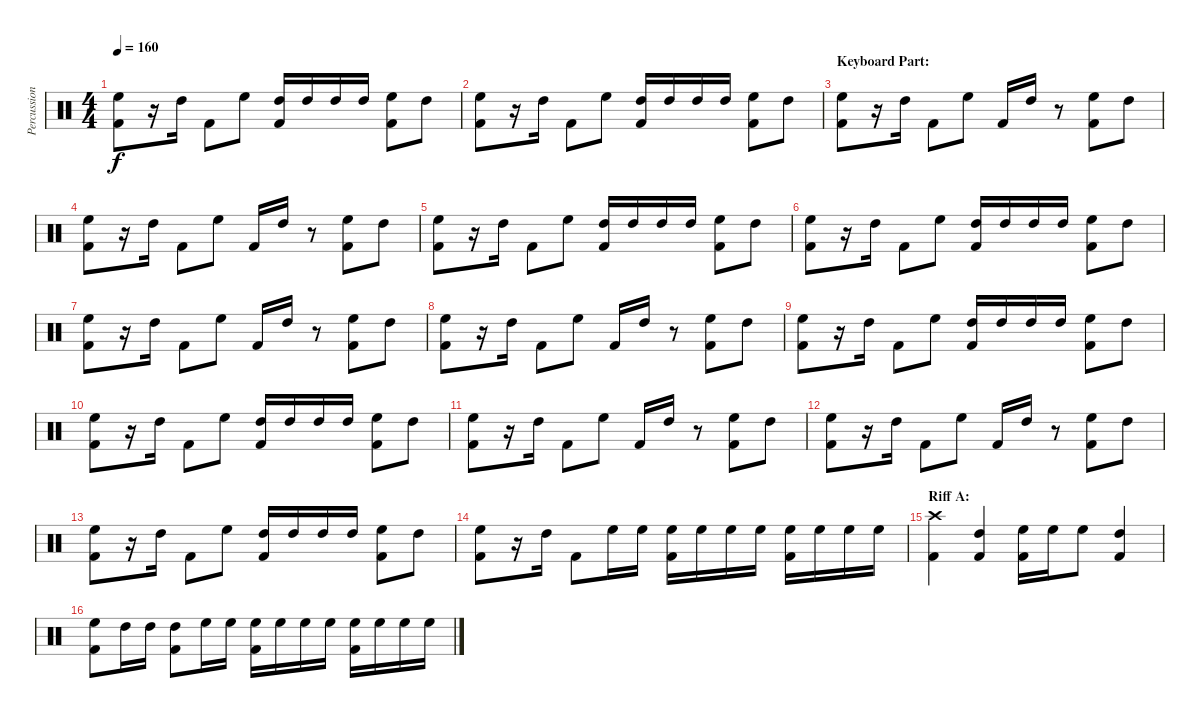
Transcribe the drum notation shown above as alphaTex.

\track ("Percussion" "Percussion") {instrument percussion}
\staff {score}
\articulation defaults
\ts (4 4)
\tempo 160
\clef neutral
\ks c
("High Floor Tom (hit)" "Kick (hit) 2").8{dy f} r.16 "High Tom (hit)".16 "Kick (hit) 2".8 "High Floor Tom (hit)".8 ("High Tom (hit)" "Kick (hit) 2").16 "High Tom (hit)".16 "High Tom (hit)".16 "High Tom (hit)".16 ("High Floor Tom (hit)" "Kick (hit) 2").8 "High Tom (hit)".8 |
("High Floor Tom (hit)" "Kick (hit) 2").8 r.16 "High Tom (hit)".16 "Kick (hit) 2".8 "High Floor Tom (hit)".8 ("High Tom (hit)" "Kick (hit) 2").16 "High Tom (hit)".16 "High Tom (hit)".16 "High Tom (hit)".16 ("High Floor Tom (hit)" "Kick (hit) 2").8 "High Tom (hit)".8 |
\section ("" "Keyboard Part:")
("High Floor Tom (hit)" "Kick (hit) 2").8 r.16 "High Tom (hit)".16 "Kick (hit) 2".8 "High Floor Tom (hit)".8 "Kick (hit) 2".16 "High Tom (hit)".16 r.8 ("High Floor Tom (hit)" "Kick (hit) 2").8 "High Tom (hit)".8 |
("High Floor Tom (hit)" "Kick (hit) 2").8 r.16 "High Tom (hit)".16 "Kick (hit) 2".8 "High Floor Tom (hit)".8 "Kick (hit) 2".16 "High Tom (hit)".16 r.8 ("High Floor Tom (hit)" "Kick (hit) 2").8 "High Tom (hit)".8 |
("High Floor Tom (hit)" "Kick (hit) 2").8 r.16 "High Tom (hit)".16 "Kick (hit) 2".8 "High Floor Tom (hit)".8 ("High Tom (hit)" "Kick (hit) 2").16 "High Tom (hit)".16 "High Tom (hit)".16 "High Tom (hit)".16 ("High Floor Tom (hit)" "Kick (hit) 2").8 "High Tom (hit)".8 |
("High Floor Tom (hit)" "Kick (hit) 2").8 r.16 "High Tom (hit)".16 "Kick (hit) 2".8 "High Floor Tom (hit)".8 ("High Tom (hit)" "Kick (hit) 2").16 "High Tom (hit)".16 "High Tom (hit)".16 "High Tom (hit)".16 ("High Floor Tom (hit)" "Kick (hit) 2").8 "High Tom (hit)".8 |
("High Floor Tom (hit)" "Kick (hit) 2").8 r.16 "High Tom (hit)".16 "Kick (hit) 2".8 "High Floor Tom (hit)".8 "Kick (hit) 2".16 "High Tom (hit)".16 r.8 ("High Floor Tom (hit)" "Kick (hit) 2").8 "High Tom (hit)".8 |
("High Floor Tom (hit)" "Kick (hit) 2").8 r.16 "High Tom (hit)".16 "Kick (hit) 2".8 "High Floor Tom (hit)".8 "Kick (hit) 2".16 "High Tom (hit)".16 r.8 ("High Floor Tom (hit)" "Kick (hit) 2").8 "High Tom (hit)".8 |
("High Floor Tom (hit)" "Kick (hit) 2").8 r.16 "High Tom (hit)".16 "Kick (hit) 2".8 "High Floor Tom (hit)".8 ("High Tom (hit)" "Kick (hit) 2").16 "High Tom (hit)".16 "High Tom (hit)".16 "High Tom (hit)".16 ("High Floor Tom (hit)" "Kick (hit) 2").8 "High Tom (hit)".8 |
("High Floor Tom (hit)" "Kick (hit) 2").8 r.16 "High Tom (hit)".16 "Kick (hit) 2".8 "High Floor Tom (hit)".8 ("High Tom (hit)" "Kick (hit) 2").16 "High Tom (hit)".16 "High Tom (hit)".16 "High Tom (hit)".16 ("High Floor Tom (hit)" "Kick (hit) 2").8 "High Tom (hit)".8 |
("High Floor Tom (hit)" "Kick (hit) 2").8 r.16 "High Tom (hit)".16 "Kick (hit) 2".8 "High Floor Tom (hit)".8 "Kick (hit) 2".16 "High Tom (hit)".16 r.8 ("High Floor Tom (hit)" "Kick (hit) 2").8 "High Tom (hit)".8 |
("High Floor Tom (hit)" "Kick (hit) 2").8 r.16 "High Tom (hit)".16 "Kick (hit) 2".8 "High Floor Tom (hit)".8 "Kick (hit) 2".16 "High Tom (hit)".16 r.8 ("High Floor Tom (hit)" "Kick (hit) 2").8 "High Tom (hit)".8 |
("High Floor Tom (hit)" "Kick (hit) 2").8 r.16 "High Tom (hit)".16 "Kick (hit) 2".8 "High Floor Tom (hit)".8 ("High Tom (hit)" "Kick (hit) 2").16 "High Tom (hit)".16 "High Tom (hit)".16 "High Tom (hit)".16 ("High Floor Tom (hit)" "Kick (hit) 2").8 "High Tom (hit)".8 |
("High Floor Tom (hit)" "Kick (hit) 2").8 r.16 "High Tom (hit)".16 "Kick (hit) 2".8 "High Floor Tom (hit)".16 "High Floor Tom (hit)".16 ("High Floor Tom (hit)" "Kick (hit) 2").16 "High Floor Tom (hit)".16 "High Floor Tom (hit)".16 "High Floor Tom (hit)".16 ("High Floor Tom (hit)" "Kick (hit) 2").16 "High Floor Tom (hit)".16 "High Floor Tom (hit)".16 "High Floor Tom (hit)".16 |
\section ("" "Riff A:")
("Crash high (hit)" "Kick (hit) 2").4 ("High Tom (hit)" "Kick (hit) 2").4 ("High Floor Tom (hit)" "Kick (hit) 2").16 "High Floor Tom (hit)".16 "High Floor Tom (hit)".8 ("High Tom (hit)" "Kick (hit) 2").4 |
("High Floor Tom (hit)" "Kick (hit) 2").8 "High Tom (hit)".16 "High Tom (hit)".16 ("High Tom (hit)" "Kick (hit) 2").8 "High Floor Tom (hit)".16 "High Floor Tom (hit)".16 ("High Floor Tom (hit)" "Kick (hit) 2").16 "High Floor Tom (hit)".16 "High Floor Tom (hit)".16 "High Floor Tom (hit)".16 ("High Floor Tom (hit)" "Kick (hit) 2").16 "High Floor Tom (hit)".16 "High Floor Tom (hit)".16 "High Floor Tom (hit)".16
